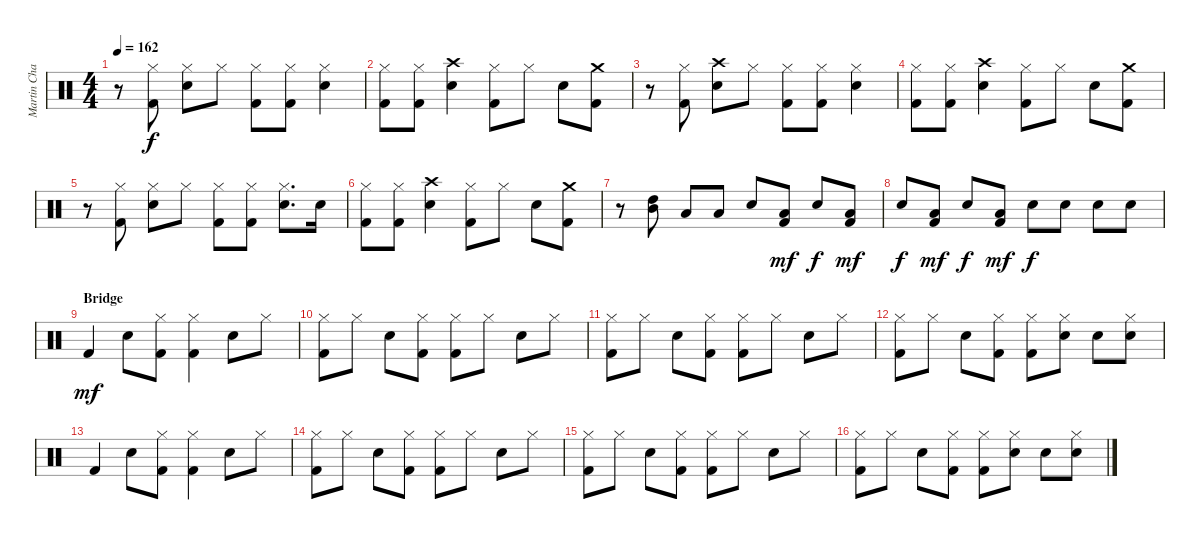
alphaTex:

\track ("Martin Chambers" "Martin Cha") {instrument percussion}
\staff {score}
\articulation defaults
\ts (4 4)
\tempo 162
\clef neutral
\ks c
r.8{dy f} ("Hi-Hat (closed)" "Kick (hit) 2").8 ("Hi-Hat (closed)" "Snare (hit) 2").8 "Hi-Hat (closed)".8 ("Hi-Hat (closed)" "Kick (hit) 2").8 ("Hi-Hat (closed)" "Kick (hit) 2").8 ("Hi-Hat (closed)" "Snare (hit) 2").4 |
("Hi-Hat (closed)" "Kick (hit) 2").8 ("Hi-Hat (closed)" "Kick (hit) 2").8 ("Crash high (hit)" "Snare (hit) 2").4 ("Hi-Hat (closed)" "Kick (hit) 2").8 "Hi-Hat (closed)".8 "Snare (hit) 2".8 ("Crash medium (hit)" "Kick (hit) 2").8 |
r.8 ("Hi-Hat (closed)" "Kick (hit) 2").8 ("Crash high (hit)" "Snare (hit) 2").8 "Hi-Hat (closed)".8 ("Hi-Hat (closed)" "Kick (hit) 2").8 ("Hi-Hat (closed)" "Kick (hit) 2").8 ("Hi-Hat (closed)" "Snare (hit) 2").4 |
("Hi-Hat (closed)" "Kick (hit) 2").8 ("Hi-Hat (closed)" "Kick (hit) 2").8 ("Crash high (hit)" "Snare (hit) 2").4 ("Hi-Hat (closed)" "Kick (hit) 2").8 "Hi-Hat (closed)".8 "Snare (hit) 2".8 ("Crash medium (hit)" "Kick (hit) 2").8 |
r.8 ("Hi-Hat (closed)" "Kick (hit) 2").8 ("Hi-Hat (closed)" "Snare (hit) 2").8 "Hi-Hat (closed)".8 ("Hi-Hat (closed)" "Kick (hit) 2").8 ("Hi-Hat (closed)" "Kick (hit) 2").8 ("Hi-Hat (closed)" "Snare (hit) 2").8{d} "Snare (hit) 2".16 |
("Hi-Hat (closed)" "Kick (hit) 2").8 ("Hi-Hat (closed)" "Kick (hit) 2").8 ("Crash high (hit)" "Snare (hit) 2").4 ("Hi-Hat (closed)" "Kick (hit) 2").8 "Hi-Hat (closed)".8 "Snare (hit) 2".8 ("Crash medium (hit)" "Kick (hit) 2").8 |
r.8 ("Mid Tom (hit)" "High Tom (hit)").8 "Low Tom (hit)".8 "Low Tom (hit)".8 "Snare (hit) 2".8 ("Low Tom (hit)" "Kick (hit) 2").8{dy mf} "Snare (hit) 2".8{dy f} ("Low Tom (hit)" "Kick (hit) 2").8{dy mf} |
"Snare (hit) 2".8{dy f} ("Low Tom (hit)" "Kick (hit) 2").8{dy mf} "Snare (hit) 2".8{dy f} ("Low Tom (hit)" "Kick (hit) 2").8{dy mf} "Snare (hit) 2".8{dy f} "Snare (hit) 2".8 "Snare (hit) 2".8 "Snare (hit) 2".8 |
\section ("" "Bridge")
"Kick (hit) 2".4{dy mf} "Snare (hit) 2".8 ("Hi-Hat (closed)" "Kick (hit) 2").8 ("Hi-Hat (closed)" "Kick (hit) 2").4 "Snare (hit) 2".8 "Hi-Hat (closed)".8 |
("Hi-Hat (closed)" "Kick (hit) 2").8 "Hi-Hat (closed)".8 "Snare (hit) 2".8 ("Hi-Hat (closed)" "Kick (hit) 2").8 ("Hi-Hat (closed)" "Kick (hit) 2").8 "Hi-Hat (closed)".8 "Snare (hit) 2".8 "Hi-Hat (closed)".8 |
("Hi-Hat (closed)" "Kick (hit) 2").8 "Hi-Hat (closed)".8 "Snare (hit) 2".8 ("Hi-Hat (closed)" "Kick (hit) 2").8 ("Hi-Hat (closed)" "Kick (hit) 2").8 "Hi-Hat (closed)".8 "Snare (hit) 2".8 "Hi-Hat (closed)".8 |
("Hi-Hat (closed)" "Kick (hit) 2").8 "Hi-Hat (closed)".8 "Snare (hit) 2".8 ("Hi-Hat (closed)" "Kick (hit) 2").8 ("Hi-Hat (closed)" "Kick (hit) 2").8 ("Hi-Hat (closed)" "Snare (hit) 2").8 "Snare (hit) 2".8 ("Hi-Hat (closed)" "Snare (hit) 2").8 |
"Kick (hit) 2".4 "Snare (hit) 2".8 ("Hi-Hat (closed)" "Kick (hit) 2").8 ("Hi-Hat (closed)" "Kick (hit) 2").4 "Snare (hit) 2".8 "Hi-Hat (closed)".8 |
("Hi-Hat (closed)" "Kick (hit) 2").8 "Hi-Hat (closed)".8 "Snare (hit) 2".8 ("Hi-Hat (closed)" "Kick (hit) 2").8 ("Hi-Hat (closed)" "Kick (hit) 2").8 "Hi-Hat (closed)".8 "Snare (hit) 2".8 "Hi-Hat (closed)".8 |
("Hi-Hat (closed)" "Kick (hit) 2").8 "Hi-Hat (closed)".8 "Snare (hit) 2".8 ("Hi-Hat (closed)" "Kick (hit) 2").8 ("Hi-Hat (closed)" "Kick (hit) 2").8 "Hi-Hat (closed)".8 "Snare (hit) 2".8 "Hi-Hat (closed)".8 |
("Hi-Hat (closed)" "Kick (hit) 2").8 "Hi-Hat (closed)".8 "Snare (hit) 2".8 ("Hi-Hat (closed)" "Kick (hit) 2").8 ("Hi-Hat (closed)" "Kick (hit) 2").8 ("Hi-Hat (closed)" "Snare (hit) 2").8 "Snare (hit) 2".8 ("Hi-Hat (closed)" "Snare (hit) 2").8
